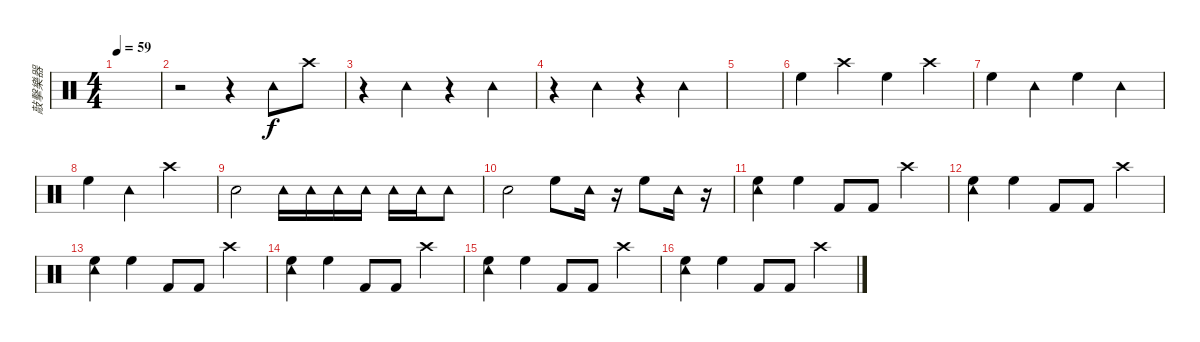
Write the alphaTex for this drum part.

\track ("敲擊樂器" "敲擊樂器") {instrument percussion}
\staff {score}
\articulation defaults
\ts (4 4)
\tempo 59
\clef neutral
\ks c
|
r.2 r.4 "Tambourine (hit)".8 "Crash high (hit)".8 |
r.4 "Tambourine (hit)".4 r.4 "Tambourine (hit)".4 |
r.4 "Tambourine (hit)".4 r.4 "Tambourine (hit)".4 |
|
"High Floor Tom (hit)".4 "Crash high (hit)".4 "High Floor Tom (hit)".4 "Crash high (hit)".4 |
"High Floor Tom (hit)".4 "Tambourine (hit)".4 "High Floor Tom (hit)".4 "Tambourine (hit)".4 |
"High Floor Tom (hit)".4 "Tambourine (hit)".4 "Crash high (hit)".2 |
"Electric Snare (hit)".2 "Tambourine (hit)".16 "Tambourine (hit)".16 "Tambourine (hit)".16 "Tambourine (hit)".16 "Tambourine (hit)".16 "Tambourine (hit)".16 "Tambourine (hit)".8 |
"Electric Snare (hit)".2 "High Floor Tom (hit)".8 "Tambourine (hit)".16 r.16 "High Floor Tom (hit)".8 "Tambourine (hit)".16 r.16 |
("High Floor Tom (hit)" "Tambourine (hit)").4 "High Floor Tom (hit)".4 "Kick (hit) 2".8 "Kick (hit) 2".8 "Crash high (hit)".4 |
("High Floor Tom (hit)" "Tambourine (hit)").4 "High Floor Tom (hit)".4 "Kick (hit) 2".8 "Kick (hit) 2".8 "Crash high (hit)".4 |
("High Floor Tom (hit)" "Tambourine (hit)").4 "High Floor Tom (hit)".4 "Kick (hit) 2".8 "Kick (hit) 2".8 "Crash high (hit)".4 |
("High Floor Tom (hit)" "Tambourine (hit)").4 "High Floor Tom (hit)".4 "Kick (hit) 2".8 "Kick (hit) 2".8 "Crash high (hit)".4 |
("High Floor Tom (hit)" "Tambourine (hit)").4 "High Floor Tom (hit)".4 "Kick (hit) 2".8 "Kick (hit) 2".8 "Crash high (hit)".4 |
("High Floor Tom (hit)" "Tambourine (hit)").4 "High Floor Tom (hit)".4 "Kick (hit) 2".8 "Kick (hit) 2".8 "Crash high (hit)".4
